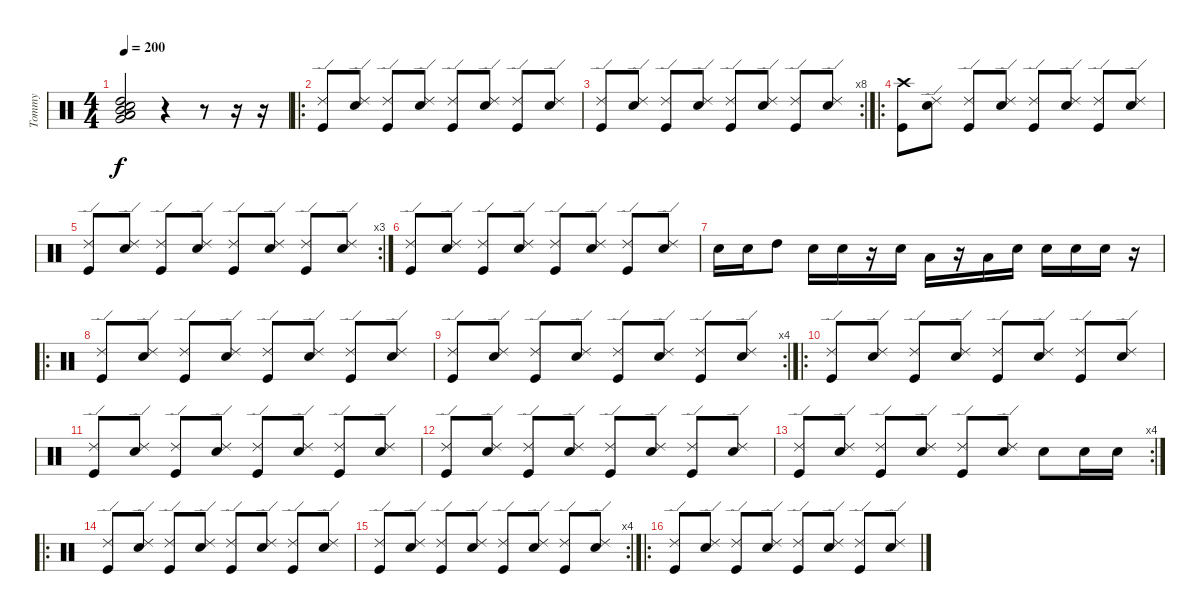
\track ("Tommy" "Tommy") {instrument percussion}
\staff {score}
\articulation defaults
\ts (4 4)
\tempo 200
\clef neutral
\ks c
("Low Floor Tom (hit)" "Mid Tom (hit)" "High Tom (hit)" "Electric Snare (hit)" "Very Low Tom (hit)" "Low Tom (hit)").2{dy f} r.4 r.8 r.16 r.16 |
\ro
("Ride (edge) 2" "Kick (hit)").8 ("Ride (edge) 2" "Snare (hit) 2").8 ("Ride (edge) 2" "Kick (hit)").8 ("Ride (edge) 2" "Snare (hit) 2").8 ("Ride (edge) 2" "Kick (hit)").8 ("Ride (edge) 2" "Snare (hit) 2").8 ("Ride (edge) 2" "Kick (hit)").8 ("Ride (edge) 2" "Snare (hit) 2").8 |
\rc 8
("Ride (edge) 2" "Kick (hit)").8 ("Ride (edge) 2" "Snare (hit) 2").8 ("Ride (edge) 2" "Kick (hit)").8 ("Ride (edge) 2" "Snare (hit) 2").8 ("Ride (edge) 2" "Kick (hit)").8 ("Ride (edge) 2" "Snare (hit) 2").8 ("Ride (edge) 2" "Kick (hit)").8 ("Ride (edge) 2" "Snare (hit) 2").8 |
\ro
("Crash high (hit)" "Kick (hit)").8 ("Ride (edge) 2" "Snare (hit) 2").8 ("Ride (edge) 2" "Kick (hit)").8 ("Ride (edge) 2" "Snare (hit) 2").8 ("Ride (edge) 2" "Kick (hit)").8 ("Ride (edge) 2" "Snare (hit) 2").8 ("Ride (edge) 2" "Kick (hit)").8 ("Ride (edge) 2" "Snare (hit) 2").8 |
\rc 3
("Ride (edge) 2" "Kick (hit)").8 ("Ride (edge) 2" "Snare (hit) 2").8 ("Ride (edge) 2" "Kick (hit)").8 ("Ride (edge) 2" "Snare (hit) 2").8 ("Ride (edge) 2" "Kick (hit)").8 ("Ride (edge) 2" "Snare (hit) 2").8 ("Ride (edge) 2" "Kick (hit)").8 ("Ride (edge) 2" "Snare (hit) 2").8 |
("Ride (edge) 2" "Kick (hit)").8 ("Ride (edge) 2" "Snare (hit) 2").8 ("Ride (edge) 2" "Kick (hit)").8 ("Ride (edge) 2" "Snare (hit) 2").8 ("Ride (edge) 2" "Kick (hit)").8 ("Ride (edge) 2" "Snare (hit) 2").8 ("Ride (edge) 2" "Kick (hit)").8 ("Ride (edge) 2" "Snare (hit) 2").8 |
"Snare (hit) 2".16 "Snare (hit) 2".16 "High Tom (hit)".8 "Snare (hit) 2".16 "Snare (hit) 2".16 r.16 "Snare (hit) 2".16 "Low Tom (hit)".16 r.16 "Low Tom (hit)".16 "Snare (hit) 2".16 "Snare (hit) 2".16 "Snare (hit) 2".16 "Snare (hit) 2".16 r.16 |
\ro
("Ride (edge) 2" "Kick (hit)").8 ("Ride (edge) 2" "Snare (hit) 2").8 ("Ride (edge) 2" "Kick (hit)").8 ("Ride (edge) 2" "Snare (hit) 2").8 ("Ride (edge) 2" "Kick (hit)").8 ("Ride (edge) 2" "Snare (hit) 2").8 ("Ride (edge) 2" "Kick (hit)").8 ("Ride (edge) 2" "Snare (hit) 2").8 |
\rc 4
("Ride (edge) 2" "Kick (hit)").8 ("Ride (edge) 2" "Snare (hit) 2").8 ("Ride (edge) 2" "Kick (hit)").8 ("Ride (edge) 2" "Snare (hit) 2").8 ("Ride (edge) 2" "Kick (hit)").8 ("Ride (edge) 2" "Snare (hit) 2").8 ("Ride (edge) 2" "Kick (hit)").8 ("Ride (edge) 2" "Snare (hit) 2").8 |
\ro
("Ride (edge) 2" "Kick (hit)").8 ("Ride (edge) 2" "Snare (hit) 2").8 ("Ride (edge) 2" "Kick (hit)").8 ("Ride (edge) 2" "Snare (hit) 2").8 ("Ride (edge) 2" "Kick (hit)").8 ("Ride (edge) 2" "Snare (hit) 2").8 ("Ride (edge) 2" "Kick (hit)").8 ("Ride (edge) 2" "Snare (hit) 2").8 |
("Ride (edge) 2" "Kick (hit)").8 ("Ride (edge) 2" "Snare (hit) 2").8 ("Ride (edge) 2" "Kick (hit)").8 ("Ride (edge) 2" "Snare (hit) 2").8 ("Ride (edge) 2" "Kick (hit)").8 ("Ride (edge) 2" "Snare (hit) 2").8 ("Ride (edge) 2" "Kick (hit)").8 ("Ride (edge) 2" "Snare (hit) 2").8 |
("Ride (edge) 2" "Kick (hit)").8 ("Ride (edge) 2" "Snare (hit) 2").8 ("Ride (edge) 2" "Kick (hit)").8 ("Ride (edge) 2" "Snare (hit) 2").8 ("Ride (edge) 2" "Kick (hit)").8 ("Ride (edge) 2" "Snare (hit) 2").8 ("Ride (edge) 2" "Kick (hit)").8 ("Ride (edge) 2" "Snare (hit) 2").8 |
\rc 4
("Ride (edge) 2" "Kick (hit)").8 ("Ride (edge) 2" "Snare (hit) 2").8 ("Ride (edge) 2" "Kick (hit)").8 ("Ride (edge) 2" "Snare (hit) 2").8 ("Ride (edge) 2" "Kick (hit)").8 ("Ride (edge) 2" "Snare (hit) 2").8 "Snare (hit) 2".8 "Snare (hit) 2".16 "Snare (hit) 2".16 |
\ro
("Ride (edge) 2" "Kick (hit)").8 ("Ride (edge) 2" "Snare (hit) 2").8 ("Ride (edge) 2" "Kick (hit)").8 ("Ride (edge) 2" "Snare (hit) 2").8 ("Ride (edge) 2" "Kick (hit)").8 ("Ride (edge) 2" "Snare (hit) 2").8 ("Ride (edge) 2" "Kick (hit)").8 ("Ride (edge) 2" "Snare (hit) 2").8 |
\rc 4
("Ride (edge) 2" "Kick (hit)").8 ("Ride (edge) 2" "Snare (hit) 2").8 ("Ride (edge) 2" "Kick (hit)").8 ("Ride (edge) 2" "Snare (hit) 2").8 ("Ride (edge) 2" "Kick (hit)").8 ("Ride (edge) 2" "Snare (hit) 2").8 ("Ride (edge) 2" "Kick (hit)").8 ("Ride (edge) 2" "Snare (hit) 2").8 |
\ro
("Ride (edge) 2" "Kick (hit)").8 ("Ride (edge) 2" "Snare (hit) 2").8 ("Ride (edge) 2" "Kick (hit)").8 ("Ride (edge) 2" "Snare (hit) 2").8 ("Ride (edge) 2" "Kick (hit)").8 ("Ride (edge) 2" "Snare (hit) 2").8 ("Ride (edge) 2" "Kick (hit)").8 ("Ride (edge) 2" "Snare (hit) 2").8
